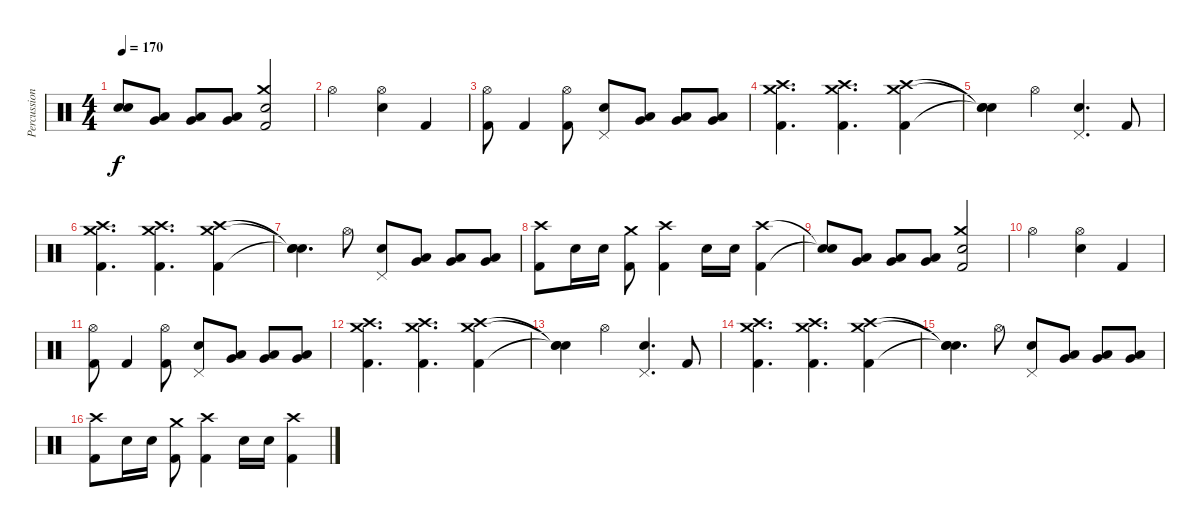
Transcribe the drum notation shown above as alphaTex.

\track ("Percussion" "Percussion") {instrument percussion}
\staff {score}
\articulation defaults
\ts (4 4)
\tempo 170
\clef neutral
\ks c
("Snare (hit)"{t} "Snare (hit)"{t}).8{dy f} ("Low Tom (hit)" "Very Low Tom (hit)").8 ("Low Tom (hit)" "Very Low Tom (hit)").8 ("Low Tom (hit)" "Very Low Tom (hit)").8 ("Crash medium (hit)" "Snare (hit) 2" "Kick (hit) 2").2 |
"Hi-Hat (open)".2 ("Hi-Hat (open)" "Snare (hit) 2").4 "Kick (hit) 2".4 |
("Hi-Hat (open)" "Kick (hit) 2").8 "Kick (hit) 2".4 ("Hi-Hat (open)" "Kick (hit) 2").8 ("Pedal Hi-Hat (hit)" "Snare (hit) 2").8 ("Very Low Tom (hit)" "Low Tom (hit)").8 ("Very Low Tom (hit)" "Low Tom (hit)").8 ("Very Low Tom (hit)" "Low Tom (hit)").8 |
("Crash high (hit)" "Crash medium (hit)" "Kick (hit) 2").4{d} ("Crash high (hit)" "Crash medium (hit)" "Kick (hit) 2").4{d} ("Crash high (hit)" "Crash medium (hit)" "Kick (hit) 2").4 |
("Snare (hit)"{t} "Snare (hit)"{t} "Snare (hit)"{t}).4 "Hi-Hat (open)".4 ("Pedal Hi-Hat (hit)" "Snare (hit) 2").4{d} "Kick (hit) 2".8 |
("Crash high (hit)" "Crash medium (hit)" "Kick (hit) 2").4{d} ("Crash high (hit)" "Crash medium (hit)" "Kick (hit) 2").4{d} ("Crash high (hit)" "Crash medium (hit)" "Kick (hit) 2").4 |
("Snare (hit)"{t} "Snare (hit)"{t} "Snare (hit)"{t}).4{d} "Hi-Hat (open)".8 ("Pedal Hi-Hat (hit)" "Snare (hit) 2").8 ("Very Low Tom (hit)" "Low Tom (hit)").8 ("Very Low Tom (hit)" "Low Tom (hit)").8 ("Very Low Tom (hit)" "Low Tom (hit)").8 |
("Crash high (hit)" "Kick (hit) 2").8 "Snare (hit) 2".16 "Snare (hit) 2".16 ("Crash medium (hit)" "Kick (hit) 2").8 ("Crash high (hit)" "Kick (hit) 2").4 "Snare (hit) 2".16 "Snare (hit) 2".16 ("Crash high (hit)" "Kick (hit) 2").4 |
("Snare (hit)"{t} "Snare (hit)"{t}).8 ("Low Tom (hit)" "Very Low Tom (hit)").8 ("Low Tom (hit)" "Very Low Tom (hit)").8 ("Low Tom (hit)" "Very Low Tom (hit)").8 ("Crash medium (hit)" "Snare (hit) 2" "Kick (hit) 2").2 |
"Hi-Hat (open)".2 ("Hi-Hat (open)" "Snare (hit) 2").4 "Kick (hit) 2".4 |
("Hi-Hat (open)" "Kick (hit) 2").8 "Kick (hit) 2".4 ("Hi-Hat (open)" "Kick (hit) 2").8 ("Pedal Hi-Hat (hit)" "Snare (hit) 2").8 ("Very Low Tom (hit)" "Low Tom (hit)").8 ("Very Low Tom (hit)" "Low Tom (hit)").8 ("Very Low Tom (hit)" "Low Tom (hit)").8 |
("Crash high (hit)" "Crash medium (hit)" "Kick (hit) 2").4{d} ("Crash high (hit)" "Crash medium (hit)" "Kick (hit) 2").4{d} ("Crash high (hit)" "Crash medium (hit)" "Kick (hit) 2").4 |
("Snare (hit)"{t} "Snare (hit)"{t} "Snare (hit)"{t}).4 "Hi-Hat (open)".4 ("Pedal Hi-Hat (hit)" "Snare (hit) 2").4{d} "Kick (hit) 2".8 |
("Crash high (hit)" "Crash medium (hit)" "Kick (hit) 2").4{d} ("Crash high (hit)" "Crash medium (hit)" "Kick (hit) 2").4{d} ("Crash high (hit)" "Crash medium (hit)" "Kick (hit) 2").4 |
("Snare (hit)"{t} "Snare (hit)"{t} "Snare (hit)"{t}).4{d} "Hi-Hat (open)".8 ("Pedal Hi-Hat (hit)" "Snare (hit) 2").8 ("Very Low Tom (hit)" "Low Tom (hit)").8 ("Very Low Tom (hit)" "Low Tom (hit)").8 ("Very Low Tom (hit)" "Low Tom (hit)").8 |
("Crash high (hit)" "Kick (hit) 2").8 "Snare (hit) 2".16 "Snare (hit) 2".16 ("Crash medium (hit)" "Kick (hit) 2").8 ("Crash high (hit)" "Kick (hit) 2").4 "Snare (hit) 2".16 "Snare (hit) 2".16 ("Crash high (hit)" "Kick (hit) 2").4
